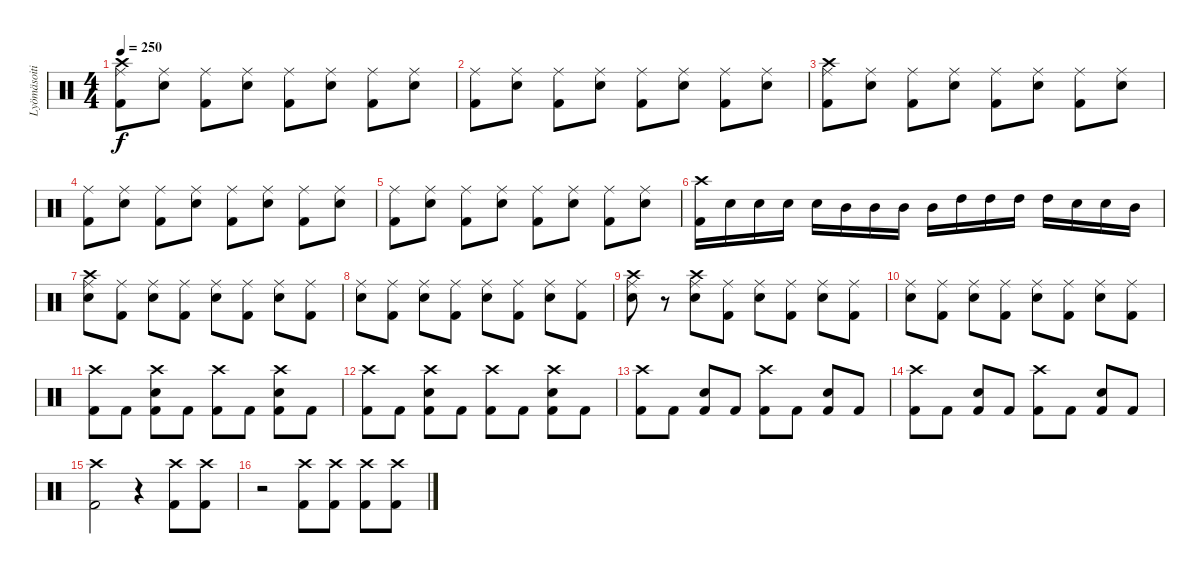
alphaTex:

\track ("Lyömäsoitin" "Lyömäsoiti") {instrument percussion}
\staff {score}
\articulation defaults
\ts (4 4)
\tempo 250
\clef neutral
\ks c
("Crash high (hit)" "Ride (middle)" "Kick (hit) 2").8{dy f} ("Ride (middle)" "Electric Snare (hit)").8 ("Ride (middle)" "Kick (hit) 2").8 ("Ride (middle)" "Electric Snare (hit)").8 ("Ride (middle)" "Kick (hit) 2").8 ("Ride (middle)" "Electric Snare (hit)").8 ("Ride (middle)" "Kick (hit) 2").8 ("Ride (middle)" "Electric Snare (hit)").8 |
("Ride (middle)" "Kick (hit) 2").8 ("Ride (middle)" "Electric Snare (hit)").8 ("Ride (middle)" "Kick (hit) 2").8 ("Ride (middle)" "Electric Snare (hit)").8 ("Ride (middle)" "Kick (hit) 2").8 ("Ride (middle)" "Electric Snare (hit)").8 ("Ride (middle)" "Kick (hit) 2").8 ("Ride (middle)" "Electric Snare (hit)").8 |
("Crash high (hit)" "Ride (middle)" "Kick (hit) 2").8 ("Ride (middle)" "Electric Snare (hit)").8 ("Ride (middle)" "Kick (hit) 2").8 ("Ride (middle)" "Electric Snare (hit)").8 ("Ride (middle)" "Kick (hit) 2").8 ("Ride (middle)" "Electric Snare (hit)").8 ("Ride (middle)" "Kick (hit) 2").8 ("Ride (middle)" "Electric Snare (hit)").8 |
("Ride (middle)" "Kick (hit) 2").8 ("Ride (middle)" "Electric Snare (hit)").8 ("Ride (middle)" "Kick (hit) 2").8 ("Ride (middle)" "Electric Snare (hit)").8 ("Ride (middle)" "Kick (hit) 2").8 ("Ride (middle)" "Electric Snare (hit)").8 ("Ride (middle)" "Kick (hit) 2").8 ("Ride (middle)" "Electric Snare (hit)").8 |
("Ride (middle)" "Kick (hit) 2").8 ("Ride (middle)" "Electric Snare (hit)").8 ("Ride (middle)" "Kick (hit) 2").8 ("Ride (middle)" "Electric Snare (hit)").8 ("Ride (middle)" "Kick (hit) 2").8 ("Ride (middle)" "Electric Snare (hit)").8 ("Ride (middle)" "Kick (hit) 2").8 ("Ride (middle)" "Electric Snare (hit)").8 |
("Crash high (hit)" "Kick (hit) 2").16 "Electric Snare (hit)".16 "Electric Snare (hit)".16 "Electric Snare (hit)".16 "Electric Snare (hit)".16 "Mid Tom (hit)".16 "Mid Tom (hit)".16 "Mid Tom (hit)".16 "Mid Tom (hit)".16 "High Tom (hit)".16 "High Tom (hit)".16 "High Tom (hit)".16 "High Tom (hit)".16 "Electric Snare (hit)".16 "Electric Snare (hit)".16 "Mid Tom (hit)".16 |
("Crash high (hit)" "Ride (middle)" "Electric Snare (hit)").8 ("Ride (middle)" "Kick (hit) 2").8 ("Ride (middle)" "Electric Snare (hit)").8 ("Ride (middle)" "Kick (hit) 2").8 ("Ride (middle)" "Electric Snare (hit)").8 ("Ride (middle)" "Kick (hit) 2").8 ("Ride (middle)" "Electric Snare (hit)").8 ("Ride (middle)" "Kick (hit) 2").8 |
("Ride (middle)" "Electric Snare (hit)").8 ("Ride (middle)" "Kick (hit) 2").8 ("Ride (middle)" "Electric Snare (hit)").8 ("Ride (middle)" "Kick (hit) 2").8 ("Ride (middle)" "Electric Snare (hit)").8 ("Ride (middle)" "Kick (hit) 2").8 ("Ride (middle)" "Electric Snare (hit)").8 ("Ride (middle)" "Kick (hit) 2").8 |
("Crash high (hit)" "Ride (middle)" "Electric Snare (hit)").8 r.8 ("Crash high (hit)" "Ride (middle)" "Electric Snare (hit)").8 ("Ride (middle)" "Kick (hit) 2").8 ("Ride (middle)" "Electric Snare (hit)").8 ("Ride (middle)" "Kick (hit) 2").8 ("Ride (middle)" "Electric Snare (hit)").8 ("Ride (middle)" "Kick (hit) 2").8 |
("Ride (middle)" "Electric Snare (hit)").8 ("Ride (middle)" "Kick (hit) 2").8 ("Ride (middle)" "Electric Snare (hit)").8 ("Ride (middle)" "Kick (hit) 2").8 ("Ride (middle)" "Electric Snare (hit)").8 ("Ride (middle)" "Kick (hit) 2").8 ("Ride (middle)" "Electric Snare (hit)").8 ("Ride (middle)" "Kick (hit) 2").8 |
("Crash high (hit)" "Kick (hit) 2").8 "Kick (hit) 2".8 ("Crash high (hit)" "Electric Snare (hit)" "Kick (hit) 2").8 "Kick (hit) 2".8 ("Crash high (hit)" "Kick (hit) 2").8 "Kick (hit) 2".8 ("Crash high (hit)" "Electric Snare (hit)" "Kick (hit) 2").8 "Kick (hit) 2".8 |
("Crash high (hit)" "Kick (hit) 2").8 "Kick (hit) 2".8 ("Crash high (hit)" "Electric Snare (hit)" "Kick (hit) 2").8 "Kick (hit) 2".8 ("Crash high (hit)" "Kick (hit) 2").8 "Kick (hit) 2".8 ("Crash high (hit)" "Electric Snare (hit)" "Kick (hit) 2").8 "Kick (hit) 2".8 |
("Crash high (hit)" "Kick (hit) 2").8 "Kick (hit) 2".8 ("Electric Snare (hit)" "Kick (hit) 2").8 "Kick (hit) 2".8 ("Crash high (hit)" "Kick (hit) 2").8 "Kick (hit) 2".8 ("Electric Snare (hit)" "Kick (hit) 2").8 "Kick (hit) 2".8 |
("Crash high (hit)" "Kick (hit) 2").8 "Kick (hit) 2".8 ("Electric Snare (hit)" "Kick (hit) 2").8 "Kick (hit) 2".8 ("Crash high (hit)" "Kick (hit) 2").8 "Kick (hit) 2".8 ("Electric Snare (hit)" "Kick (hit) 2").8 "Kick (hit) 2".8 |
("Crash high (hit)" "Kick (hit) 2").2 r.4 ("Crash high (hit)" "Kick (hit) 2").8 ("Crash high (hit)" "Kick (hit) 2").8 |
r.2 ("Crash high (hit)" "Kick (hit) 2").8 ("Crash high (hit)" "Kick (hit) 2").8 ("Crash high (hit)" "Kick (hit) 2").8 ("Crash high (hit)" "Kick (hit) 2").8
